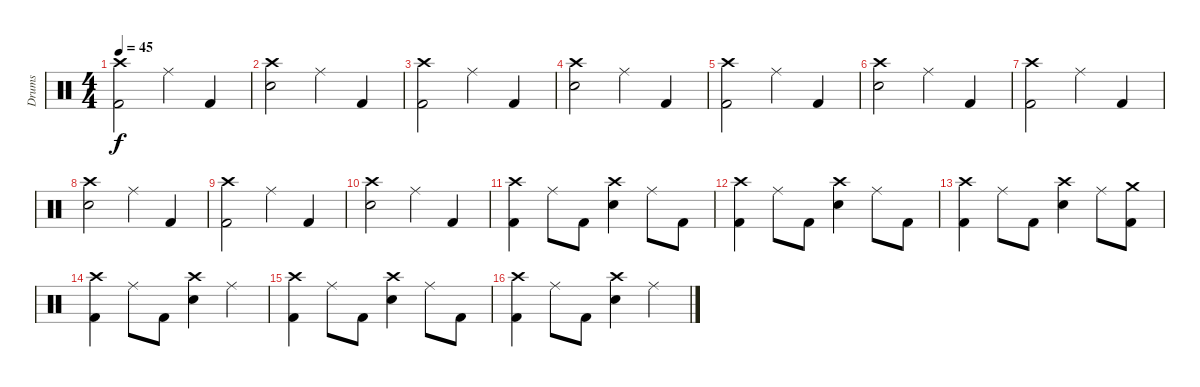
\track ("Drums" "Drums") {instrument percussion}
\staff {score}
\articulation defaults
\ts (4 4)
\tempo 45
\clef neutral
\ks c
("Crash high (hit)" "Kick (hit) 2").2{dy f} "Ride (middle)".4 "Kick (hit) 2".4 |
("Crash high (hit)" "Electric Snare (hit)").2 "Ride (middle)".4 "Kick (hit) 2".4 |
("Crash high (hit)" "Kick (hit) 2").2 "Ride (middle)".4 "Kick (hit) 2".4 |
("Crash high (hit)" "Electric Snare (hit)").2 "Ride (middle)".4 "Kick (hit) 2".4 |
("Crash high (hit)" "Kick (hit) 2").2 "Ride (middle)".4 "Kick (hit) 2".4 |
("Crash high (hit)" "Electric Snare (hit)").2 "Ride (middle)".4 "Kick (hit) 2".4 |
("Crash high (hit)" "Kick (hit) 2").2 "Ride (middle)".4 "Kick (hit) 2".4 |
("Crash high (hit)" "Electric Snare (hit)").2 "Ride (middle)".4 "Kick (hit) 2".4 |
("Crash high (hit)" "Kick (hit) 2").2 "Ride (middle)".4 "Kick (hit) 2".4 |
("Crash high (hit)" "Electric Snare (hit)").2 "Ride (middle)".4 "Kick (hit) 2".4 |
("Crash high (hit)" "Kick (hit) 2").4 "Ride (middle)".8 "Kick (hit) 2".8 ("Crash high (hit)" "Electric Snare (hit)").4 "Ride (middle)".8 "Kick (hit) 2".8 |
("Crash high (hit)" "Kick (hit) 2").4 "Ride (middle)".8 "Kick (hit) 2".8 ("Crash high (hit)" "Electric Snare (hit)").4 "Ride (middle)".8 "Kick (hit) 2".8 |
("Crash high (hit)" "Kick (hit) 2").4 "Ride (middle)".8 "Kick (hit) 2".8 ("Crash high (hit)" "Electric Snare (hit)").4 "Ride (middle)".8 ("Crash medium (hit)" "Kick (hit) 2").8 |
("Crash high (hit)" "Kick (hit) 2").4 "Ride (middle)".8 "Kick (hit) 2".8 ("Crash high (hit)" "Electric Snare (hit)").4 "Ride (middle)".4 |
("Crash high (hit)" "Kick (hit) 2").4 "Ride (middle)".8 "Kick (hit) 2".8 ("Crash high (hit)" "Electric Snare (hit)").4 "Ride (middle)".8 "Kick (hit) 2".8 |
("Crash high (hit)" "Kick (hit) 2").4 "Ride (middle)".8 "Kick (hit) 2".8 ("Crash high (hit)" "Electric Snare (hit)").4 "Ride (middle)".4
